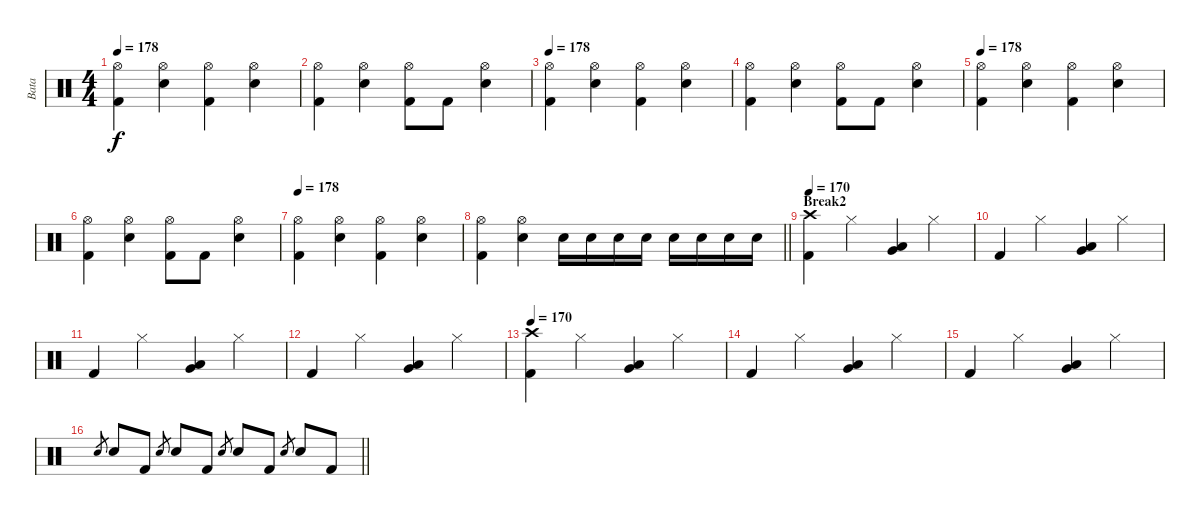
\track ("Bata" "Bata") {instrument percussion}
\staff {score}
\articulation defaults
\ts (4 4)
\tempo 178
\clef neutral
\ks c
("Hi-Hat (open)" "Kick (hit) 2").4{dy f} ("Hi-Hat (open)" "Snare (hit) 2").4 ("Hi-Hat (open)" "Kick (hit) 2").4 ("Hi-Hat (open)" "Snare (hit) 2").4 |
("Hi-Hat (open)" "Kick (hit) 2").4 ("Hi-Hat (open)" "Snare (hit) 2").4 ("Hi-Hat (open)" "Kick (hit) 2").8 "Kick (hit) 2".8 ("Hi-Hat (open)" "Snare (hit) 2").4 |
\tempo 178
("Hi-Hat (open)" "Kick (hit) 2").4 ("Hi-Hat (open)" "Snare (hit) 2").4 ("Hi-Hat (open)" "Kick (hit) 2").4 ("Hi-Hat (open)" "Snare (hit) 2").4 |
("Hi-Hat (open)" "Kick (hit) 2").4 ("Hi-Hat (open)" "Snare (hit) 2").4 ("Hi-Hat (open)" "Kick (hit) 2").8 "Kick (hit) 2".8 ("Hi-Hat (open)" "Snare (hit) 2").4 |
\tempo 178
("Hi-Hat (open)" "Kick (hit) 2").4 ("Hi-Hat (open)" "Snare (hit) 2").4 ("Hi-Hat (open)" "Kick (hit) 2").4 ("Hi-Hat (open)" "Snare (hit) 2").4 |
("Hi-Hat (open)" "Kick (hit) 2").4 ("Hi-Hat (open)" "Snare (hit) 2").4 ("Hi-Hat (open)" "Kick (hit) 2").8 "Kick (hit) 2".8 ("Hi-Hat (open)" "Snare (hit) 2").4 |
\tempo 178
("Hi-Hat (open)" "Kick (hit) 2").4 ("Hi-Hat (open)" "Snare (hit) 2").4 ("Hi-Hat (open)" "Kick (hit) 2").4 ("Hi-Hat (open)" "Snare (hit) 2").4 |
\barLineRight lightlight
("Hi-Hat (open)" "Kick (hit) 2").4 ("Hi-Hat (open)" "Snare (hit) 2").4 "Snare (hit) 2".16 "Snare (hit) 2".16 "Snare (hit) 2".16 "Snare (hit) 2".16 "Snare (hit) 2".16 "Snare (hit) 2".16 "Snare (hit) 2".16 "Snare (hit) 2".16 |
\section ("" "Break2")
\tempo 170
("Crash high (hit)" "Kick (hit) 2").4{volume 16} "Hi-Hat (closed)".4 ("Very Low Tom (hit)" "Low Floor Tom (hit)").4 "Hi-Hat (closed)".4 |
"Kick (hit) 2".4 "Hi-Hat (closed)".4 ("Low Floor Tom (hit)" "Very Low Tom (hit)").4 "Hi-Hat (closed)".4 |
"Kick (hit) 2".4 "Hi-Hat (closed)".4 ("Low Floor Tom (hit)" "Very Low Tom (hit)").4 "Hi-Hat (closed)".4 |
"Kick (hit) 2".4 "Hi-Hat (closed)".4 ("Low Floor Tom (hit)" "Very Low Tom (hit)").4 "Hi-Hat (closed)".4 |
\tempo 170
("Crash high (hit)" "Kick (hit) 2").4{volume 16} "Hi-Hat (closed)".4 ("Very Low Tom (hit)" "Low Floor Tom (hit)").4 "Hi-Hat (closed)".4 |
"Kick (hit) 2".4 "Hi-Hat (closed)".4 ("Low Floor Tom (hit)" "Very Low Tom (hit)").4 "Hi-Hat (closed)".4 |
"Kick (hit) 2".4 "Hi-Hat (closed)".4 ("Low Floor Tom (hit)" "Very Low Tom (hit)").4 "Hi-Hat (closed)".4 |
\barLineRight lightlight "Electric Snare (hit)".8{gr} "Electric Snare (hit)".8 "Kick (hit) 2".8 "Electric Snare (hit)".8{gr} "Electric Snare (hit)".8 "Kick (hit) 2".8 "Electric Snare (hit)".8{gr} "Electric Snare (hit)".8 "Kick (hit) 2".8 "Electric Snare (hit)".8{gr} "Electric Snare (hit)".8 "Kick (hit) 2".8
